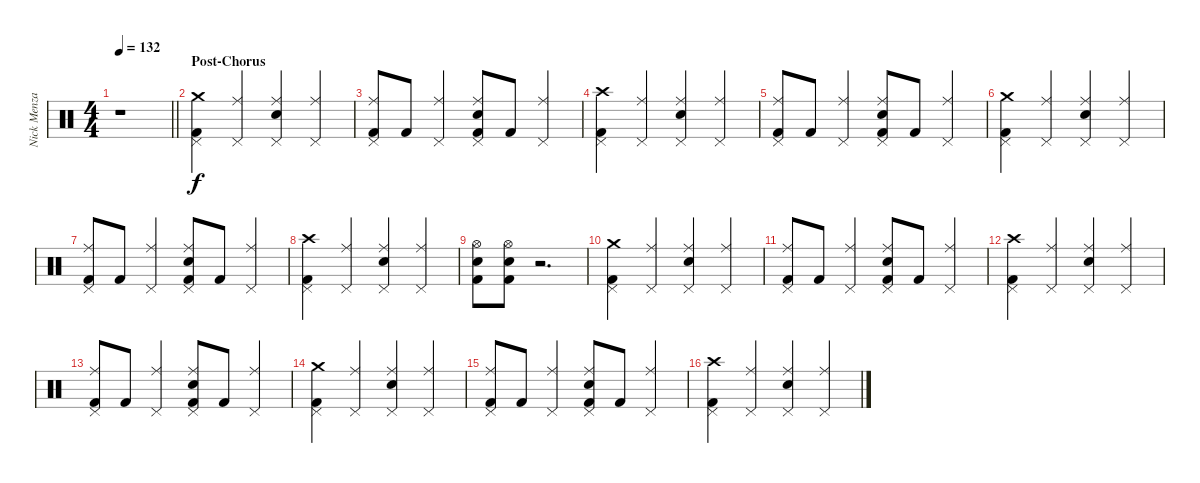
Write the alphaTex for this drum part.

\track ("Nick Menza" "Nick Menza") {instrument percussion}
\staff {score}
\articulation defaults
\ts (4 4)
\tempo 132
\clef neutral
\barLineRight lightlight
\ks c
r.1{dy f volume 0} |
\section ("" "Post-Chorus")
("Crash medium (hit)" "Pedal Hi-Hat (hit)" "Kick (hit) 2").4{volume 16} ("Ride (middle)" "Pedal Hi-Hat (hit)").4 ("Ride (middle)" "Pedal Hi-Hat (hit)" "Snare (hit) 2").4 ("Ride (middle)" "Pedal Hi-Hat (hit)").4 |
("Ride (middle)" "Pedal Hi-Hat (hit)" "Kick (hit) 2").8 "Kick (hit) 2".8 ("Ride (middle)" "Pedal Hi-Hat (hit)").4 ("Ride (middle)" "Pedal Hi-Hat (hit)" "Snare (hit) 2" "Kick (hit) 2").8 "Kick (hit) 2".8 ("Ride (middle)" "Pedal Hi-Hat (hit)").4 |
("Crash high (hit)" "Pedal Hi-Hat (hit)" "Kick (hit) 2").4 ("Ride (middle)" "Pedal Hi-Hat (hit)").4 ("Ride (middle)" "Pedal Hi-Hat (hit)" "Snare (hit) 2").4 ("Ride (middle)" "Pedal Hi-Hat (hit)").4 |
("Ride (middle)" "Pedal Hi-Hat (hit)" "Kick (hit) 2").8 "Kick (hit) 2".8 ("Ride (middle)" "Pedal Hi-Hat (hit)").4 ("Ride (middle)" "Pedal Hi-Hat (hit)" "Snare (hit) 2" "Kick (hit) 2").8 "Kick (hit) 2".8 ("Ride (middle)" "Pedal Hi-Hat (hit)").4 |
("Crash medium (hit)" "Pedal Hi-Hat (hit)" "Kick (hit) 2").4 ("Ride (middle)" "Pedal Hi-Hat (hit)").4 ("Ride (middle)" "Pedal Hi-Hat (hit)" "Snare (hit) 2").4 ("Ride (middle)" "Pedal Hi-Hat (hit)").4 |
("Ride (middle)" "Pedal Hi-Hat (hit)" "Kick (hit) 2").8 "Kick (hit) 2".8 ("Ride (middle)" "Pedal Hi-Hat (hit)").4 ("Ride (middle)" "Pedal Hi-Hat (hit)" "Snare (hit) 2" "Kick (hit) 2").8 "Kick (hit) 2".8 ("Ride (middle)" "Pedal Hi-Hat (hit)").4 |
("Crash high (hit)" "Pedal Hi-Hat (hit)" "Kick (hit) 2").4 ("Ride (middle)" "Pedal Hi-Hat (hit)").4 ("Ride (middle)" "Pedal Hi-Hat (hit)" "Snare (hit) 2").4 ("Ride (middle)" "Pedal Hi-Hat (hit)").4 |
("Hi-Hat (open)" "Snare (hit) 2" "Kick (hit) 2").8 ("Hi-Hat (open)" "Snare (hit) 2" "Kick (hit) 2").8 r.2{d volume 0} |
("Crash medium (hit)" "Pedal Hi-Hat (hit)" "Kick (hit) 2").4{volume 16} ("Ride (middle)" "Pedal Hi-Hat (hit)").4 ("Ride (middle)" "Pedal Hi-Hat (hit)" "Snare (hit) 2").4 ("Ride (middle)" "Pedal Hi-Hat (hit)").4 |
("Ride (middle)" "Pedal Hi-Hat (hit)" "Kick (hit) 2").8 "Kick (hit) 2".8 ("Ride (middle)" "Pedal Hi-Hat (hit)").4 ("Ride (middle)" "Pedal Hi-Hat (hit)" "Snare (hit) 2" "Kick (hit) 2").8 "Kick (hit) 2".8 ("Ride (middle)" "Pedal Hi-Hat (hit)").4 |
("Crash high (hit)" "Pedal Hi-Hat (hit)" "Kick (hit) 2").4 ("Ride (middle)" "Pedal Hi-Hat (hit)").4 ("Ride (middle)" "Pedal Hi-Hat (hit)" "Snare (hit) 2").4 ("Ride (middle)" "Pedal Hi-Hat (hit)").4 |
("Ride (middle)" "Pedal Hi-Hat (hit)" "Kick (hit) 2").8 "Kick (hit) 2".8 ("Ride (middle)" "Pedal Hi-Hat (hit)").4 ("Ride (middle)" "Pedal Hi-Hat (hit)" "Snare (hit) 2" "Kick (hit) 2").8 "Kick (hit) 2".8 ("Ride (middle)" "Pedal Hi-Hat (hit)").4 |
("Crash medium (hit)" "Pedal Hi-Hat (hit)" "Kick (hit) 2").4 ("Ride (middle)" "Pedal Hi-Hat (hit)").4 ("Ride (middle)" "Pedal Hi-Hat (hit)" "Snare (hit) 2").4 ("Ride (middle)" "Pedal Hi-Hat (hit)").4 |
("Ride (middle)" "Pedal Hi-Hat (hit)" "Kick (hit) 2").8 "Kick (hit) 2".8 ("Ride (middle)" "Pedal Hi-Hat (hit)").4 ("Ride (middle)" "Pedal Hi-Hat (hit)" "Snare (hit) 2" "Kick (hit) 2").8 "Kick (hit) 2".8 ("Ride (middle)" "Pedal Hi-Hat (hit)").4 |
("Crash high (hit)" "Pedal Hi-Hat (hit)" "Kick (hit) 2").4 ("Ride (middle)" "Pedal Hi-Hat (hit)").4 ("Ride (middle)" "Pedal Hi-Hat (hit)" "Snare (hit) 2").4 ("Ride (middle)" "Pedal Hi-Hat (hit)").4
